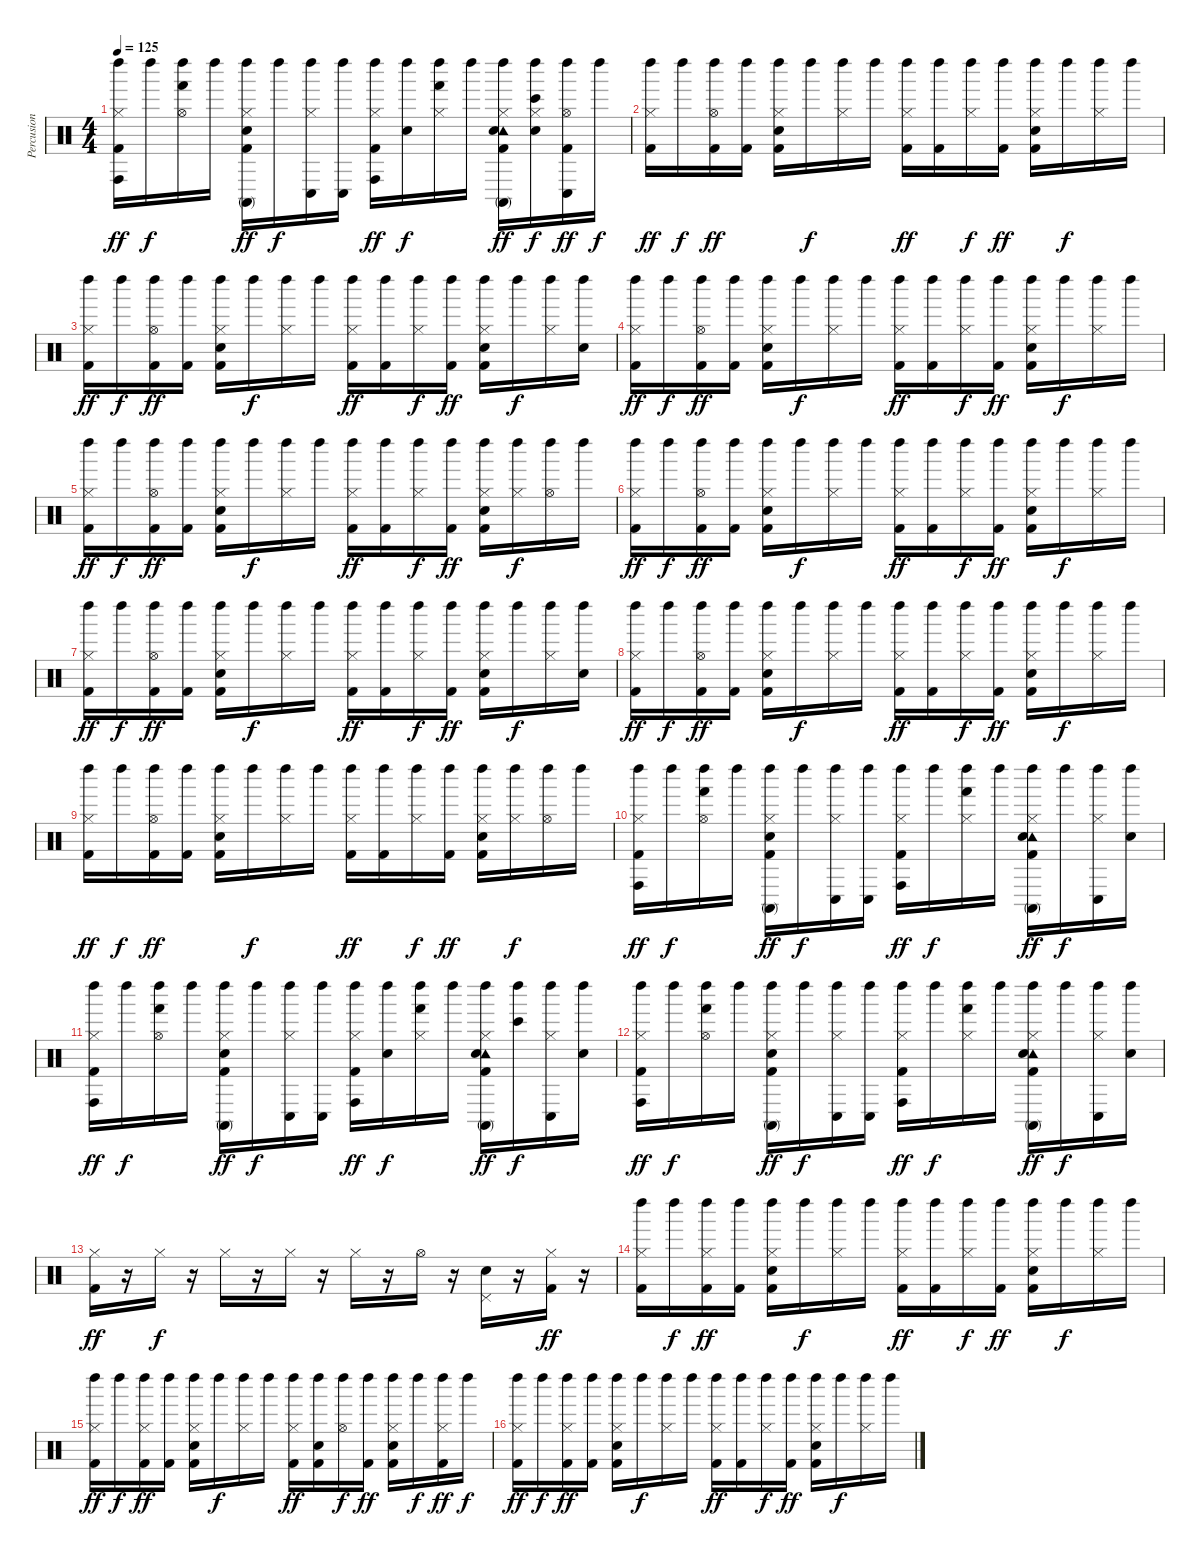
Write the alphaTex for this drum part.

\track ("Percusion" "Percusion") {instrument percussion}
\staff {score}
\articulation defaults
\ts (4 4)
\tempo 125
\clef neutral
\ks c
("Kick (hit) 2" "Left Maraca (hit)" "Hi-Hat (closed)" "Conga high (hit)").16{dy ff} "Left Maraca (hit)".16{dy f} ("Left Maraca (hit)" "Hi-Hat (open)" "Hand (hit)").16 "Left Maraca (hit)".16 ("Left Maraca (hit)" "Hi-Hat (closed)" "Conga high (mute)" "Kick (hit) 2" "Electric Snare (hit)").16{dy ff} "Left Maraca (hit)".16{dy f} ("Left Maraca (hit)" "Hi-Hat (closed)" "Conga low (hit)").16 ("Conga low (hit)" "Left Maraca (hit)").16 ("Left Maraca (hit)" "Hi-Hat (closed)" "Conga high (hit)" "Kick (hit) 2").16{dy ff} ("Electric Snare (hit)" "Left Maraca (hit)").16{dy f} ("Left Maraca (hit)" "Hi-Hat (closed)" "Hand (hit)").16 "Left Maraca (hit)".16 ("Left Maraca (hit)" "Hi-Hat (closed)" "Conga high (mute)" "Tambourine (hit)" "Electric Snare (hit)" "Kick (hit) 2").16{dy ff} ("Electric Snare (hit)" "Bongo High (hit)" "Left Maraca (hit)" "Hi-Hat (closed)").16{dy f} ("Left Maraca (hit)" "Hi-Hat (open)" "Conga low (hit)" "Kick (hit) 2").16{dy ff} "Left Maraca (hit)".16{dy f} |
("Left Maraca (hit)" "Hi-Hat (closed)" "Kick (hit) 2").16{dy ff} "Left Maraca (hit)".16{dy f} ("Left Maraca (hit)" "Hi-Hat (open)" "Kick (hit) 2").16{dy ff} ("Kick (hit) 2" "Left Maraca (hit)").16 ("Left Maraca (hit)" "Hi-Hat (closed)" "Kick (hit) 2" "Electric Snare (hit)").16 "Left Maraca (hit)".16{dy f} ("Left Maraca (hit)" "Hi-Hat (closed)").16 "Left Maraca (hit)".16 ("Left Maraca (hit)" "Hi-Hat (closed)" "Kick (hit) 2").16{dy ff} ("Kick (hit) 2" "Left Maraca (hit)").16 ("Left Maraca (hit)" "Hi-Hat (closed)").16{dy f} ("Left Maraca (hit)" "Kick (hit) 2").16{dy ff} ("Kick (hit) 2" "Electric Snare (hit)" "Left Maraca (hit)" "Hi-Hat (closed)").16 "Left Maraca (hit)".16{dy f} ("Left Maraca (hit)" "Hi-Hat (closed)").16 "Left Maraca (hit)".16 |
("Left Maraca (hit)" "Hi-Hat (closed)" "Kick (hit) 2").16{dy ff} "Left Maraca (hit)".16{dy f} ("Left Maraca (hit)" "Hi-Hat (open)" "Kick (hit) 2").16{dy ff} ("Kick (hit) 2" "Left Maraca (hit)").16 ("Left Maraca (hit)" "Hi-Hat (closed)" "Kick (hit) 2" "Electric Snare (hit)").16 "Left Maraca (hit)".16{dy f} ("Left Maraca (hit)" "Hi-Hat (closed)").16 "Left Maraca (hit)".16 ("Left Maraca (hit)" "Hi-Hat (closed)" "Kick (hit) 2").16{dy ff} ("Kick (hit) 2" "Left Maraca (hit)").16 ("Left Maraca (hit)" "Hi-Hat (closed)").16{dy f} ("Left Maraca (hit)" "Kick (hit) 2").16{dy ff} ("Kick (hit) 2" "Electric Snare (hit)" "Left Maraca (hit)" "Hi-Hat (closed)").16 "Left Maraca (hit)".16{dy f} ("Left Maraca (hit)" "Hi-Hat (closed)").16 ("Left Maraca (hit)" "Electric Snare (hit)").16 |
("Kick (hit) 2" "Left Maraca (hit)" "Hi-Hat (closed)").16{dy ff} "Left Maraca (hit)".16{dy f} ("Left Maraca (hit)" "Hi-Hat (open)" "Kick (hit) 2").16{dy ff} ("Kick (hit) 2" "Left Maraca (hit)").16 ("Left Maraca (hit)" "Hi-Hat (closed)" "Kick (hit) 2" "Electric Snare (hit)").16 "Left Maraca (hit)".16{dy f} ("Left Maraca (hit)" "Hi-Hat (closed)").16 "Left Maraca (hit)".16 ("Left Maraca (hit)" "Hi-Hat (closed)" "Kick (hit) 2").16{dy ff} ("Kick (hit) 2" "Left Maraca (hit)").16 ("Left Maraca (hit)" "Hi-Hat (closed)").16{dy f} ("Left Maraca (hit)" "Kick (hit) 2").16{dy ff} ("Kick (hit) 2" "Electric Snare (hit)" "Left Maraca (hit)" "Hi-Hat (closed)").16 "Left Maraca (hit)".16{dy f} ("Left Maraca (hit)" "Hi-Hat (closed)").16 "Left Maraca (hit)".16 |
("Left Maraca (hit)" "Hi-Hat (closed)" "Kick (hit) 2").16{dy ff} "Left Maraca (hit)".16{dy f} ("Left Maraca (hit)" "Hi-Hat (open)" "Kick (hit) 2").16{dy ff} ("Kick (hit) 2" "Left Maraca (hit)").16 ("Left Maraca (hit)" "Hi-Hat (closed)" "Kick (hit) 2" "Electric Snare (hit)").16 "Left Maraca (hit)".16{dy f} ("Left Maraca (hit)" "Hi-Hat (closed)").16 "Left Maraca (hit)".16 ("Left Maraca (hit)" "Hi-Hat (closed)" "Kick (hit) 2").16{dy ff} ("Kick (hit) 2" "Left Maraca (hit)").16 ("Left Maraca (hit)" "Hi-Hat (closed)").16{dy f} ("Left Maraca (hit)" "Kick (hit) 2").16{dy ff} ("Kick (hit) 2" "Electric Snare (hit)" "Left Maraca (hit)" "Hi-Hat (closed)").16 ("Left Maraca (hit)" "Hi-Hat (closed)").16{dy f} ("Left Maraca (hit)" "Hi-Hat (open)").16 "Left Maraca (hit)".16 |
("Left Maraca (hit)" "Hi-Hat (closed)" "Kick (hit) 2").16{dy ff} "Left Maraca (hit)".16{dy f} ("Left Maraca (hit)" "Hi-Hat (open)" "Kick (hit) 2").16{dy ff} ("Kick (hit) 2" "Left Maraca (hit)").16 ("Left Maraca (hit)" "Hi-Hat (closed)" "Kick (hit) 2" "Electric Snare (hit)").16 "Left Maraca (hit)".16{dy f} ("Left Maraca (hit)" "Hi-Hat (closed)").16 "Left Maraca (hit)".16 ("Left Maraca (hit)" "Hi-Hat (closed)" "Kick (hit) 2").16{dy ff} ("Kick (hit) 2" "Left Maraca (hit)").16 ("Left Maraca (hit)" "Hi-Hat (closed)").16{dy f} ("Left Maraca (hit)" "Kick (hit) 2").16{dy ff} ("Kick (hit) 2" "Electric Snare (hit)" "Left Maraca (hit)" "Hi-Hat (closed)").16 "Left Maraca (hit)".16{dy f} ("Left Maraca (hit)" "Hi-Hat (closed)").16 "Left Maraca (hit)".16 |
("Left Maraca (hit)" "Hi-Hat (closed)" "Kick (hit) 2").16{dy ff} "Left Maraca (hit)".16{dy f} ("Left Maraca (hit)" "Hi-Hat (open)" "Kick (hit) 2").16{dy ff} ("Kick (hit) 2" "Left Maraca (hit)").16 ("Left Maraca (hit)" "Hi-Hat (closed)" "Kick (hit) 2" "Electric Snare (hit)").16 "Left Maraca (hit)".16{dy f} ("Left Maraca (hit)" "Hi-Hat (closed)").16 "Left Maraca (hit)".16 ("Left Maraca (hit)" "Hi-Hat (closed)" "Kick (hit) 2").16{dy ff} ("Kick (hit) 2" "Left Maraca (hit)").16 ("Left Maraca (hit)" "Hi-Hat (closed)").16{dy f} ("Left Maraca (hit)" "Kick (hit) 2").16{dy ff} ("Kick (hit) 2" "Electric Snare (hit)" "Left Maraca (hit)" "Hi-Hat (closed)").16 "Left Maraca (hit)".16{dy f} ("Left Maraca (hit)" "Hi-Hat (closed)").16 ("Left Maraca (hit)" "Electric Snare (hit)").16 |
("Kick (hit) 2" "Left Maraca (hit)" "Hi-Hat (closed)").16{dy ff} "Left Maraca (hit)".16{dy f} ("Left Maraca (hit)" "Hi-Hat (open)" "Kick (hit) 2").16{dy ff} ("Kick (hit) 2" "Left Maraca (hit)").16 ("Left Maraca (hit)" "Hi-Hat (closed)" "Kick (hit) 2" "Electric Snare (hit)").16 "Left Maraca (hit)".16{dy f} ("Left Maraca (hit)" "Hi-Hat (closed)").16 "Left Maraca (hit)".16 ("Left Maraca (hit)" "Hi-Hat (closed)" "Kick (hit) 2").16{dy ff} ("Kick (hit) 2" "Left Maraca (hit)").16 ("Left Maraca (hit)" "Hi-Hat (closed)").16{dy f} ("Left Maraca (hit)" "Kick (hit) 2").16{dy ff} ("Kick (hit) 2" "Electric Snare (hit)" "Left Maraca (hit)" "Hi-Hat (closed)").16 "Left Maraca (hit)".16{dy f} ("Left Maraca (hit)" "Hi-Hat (closed)").16 "Left Maraca (hit)".16 |
("Left Maraca (hit)" "Hi-Hat (closed)" "Kick (hit) 2").16{dy ff} "Left Maraca (hit)".16{dy f} ("Left Maraca (hit)" "Hi-Hat (open)" "Kick (hit) 2").16{dy ff} ("Kick (hit) 2" "Left Maraca (hit)").16 ("Left Maraca (hit)" "Hi-Hat (closed)" "Kick (hit) 2" "Electric Snare (hit)").16 "Left Maraca (hit)".16{dy f} ("Left Maraca (hit)" "Hi-Hat (closed)").16 "Left Maraca (hit)".16 ("Left Maraca (hit)" "Hi-Hat (closed)" "Kick (hit) 2").16{dy ff} ("Kick (hit) 2" "Left Maraca (hit)").16 ("Left Maraca (hit)" "Hi-Hat (closed)").16{dy f} ("Left Maraca (hit)" "Kick (hit) 2").16{dy ff} ("Kick (hit) 2" "Electric Snare (hit)" "Left Maraca (hit)" "Hi-Hat (closed)").16 ("Left Maraca (hit)" "Hi-Hat (closed)").16{dy f} ("Left Maraca (hit)" "Hi-Hat (open)").16 "Left Maraca (hit)".16 |
("Left Maraca (hit)" "Hi-Hat (closed)" "Conga high (hit)" "Kick (hit) 2").16{dy ff} "Left Maraca (hit)".16{dy f} ("Left Maraca (hit)" "Hi-Hat (open)" "Hand (hit)").16 "Left Maraca (hit)".16 ("Left Maraca (hit)" "Hi-Hat (closed)" "Conga high (mute)" "Kick (hit) 2" "Electric Snare (hit)").16{dy ff} "Left Maraca (hit)".16{dy f} ("Left Maraca (hit)" "Hi-Hat (closed)" "Conga low (hit)").16 ("Conga low (hit)" "Left Maraca (hit)").16 ("Left Maraca (hit)" "Hi-Hat (closed)" "Conga high (hit)" "Kick (hit) 2").16{dy ff} "Left Maraca (hit)".16{dy f} ("Left Maraca (hit)" "Hi-Hat (closed)" "Hand (hit)").16 "Left Maraca (hit)".16 ("Left Maraca (hit)" "Hi-Hat (closed)" "Conga high (mute)" "Tambourine (hit)" "Kick (hit) 2" "Electric Snare (hit)").16{dy ff} "Left Maraca (hit)".16{dy f} ("Left Maraca (hit)" "Hi-Hat (closed)" "Conga low (hit)").16 ("Left Maraca (hit)" "Electric Snare (hit)").16 |
("Kick (hit) 2" "Left Maraca (hit)" "Hi-Hat (closed)" "Conga high (hit)").16{dy ff} "Left Maraca (hit)".16{dy f} ("Left Maraca (hit)" "Hi-Hat (open)" "Hand (hit)").16 "Left Maraca (hit)".16 ("Left Maraca (hit)" "Hi-Hat (closed)" "Conga high (mute)" "Kick (hit) 2" "Electric Snare (hit)").16{dy ff} "Left Maraca (hit)".16{dy f} ("Left Maraca (hit)" "Hi-Hat (closed)" "Conga low (hit)").16 ("Conga low (hit)" "Left Maraca (hit)").16 ("Left Maraca (hit)" "Hi-Hat (closed)" "Conga high (hit)" "Kick (hit) 2").16{dy ff} ("Electric Snare (hit)" "Left Maraca (hit)").16{dy f} ("Left Maraca (hit)" "Hi-Hat (closed)" "Hand (hit)").16 "Left Maraca (hit)".16 ("Left Maraca (hit)" "Hi-Hat (closed)" "Conga high (mute)" "Tambourine (hit)" "Electric Snare (hit)" "Kick (hit) 2").16{dy ff} ("Bongo High (hit)" "Left Maraca (hit)").16{dy f} ("Left Maraca (hit)" "Hi-Hat (closed)" "Conga low (hit)").16 ("Left Maraca (hit)" "Electric Snare (hit)").16 |
("Kick (hit) 2" "Left Maraca (hit)" "Hi-Hat (closed)" "Conga high (hit)").16{dy ff} "Left Maraca (hit)".16{dy f} ("Left Maraca (hit)" "Hi-Hat (open)" "Hand (hit)").16 "Left Maraca (hit)".16 ("Left Maraca (hit)" "Hi-Hat (closed)" "Conga high (mute)" "Kick (hit) 2" "Electric Snare (hit)").16{dy ff} "Left Maraca (hit)".16{dy f} ("Left Maraca (hit)" "Hi-Hat (closed)" "Conga low (hit)").16 ("Conga low (hit)" "Left Maraca (hit)").16 ("Left Maraca (hit)" "Hi-Hat (closed)" "Conga high (hit)" "Kick (hit) 2").16{dy ff} "Left Maraca (hit)".16{dy f} ("Left Maraca (hit)" "Hi-Hat (closed)" "Hand (hit)").16 "Left Maraca (hit)".16 ("Left Maraca (hit)" "Hi-Hat (closed)" "Conga high (mute)" "Tambourine (hit)" "Kick (hit) 2" "Electric Snare (hit)").16{dy ff} "Left Maraca (hit)".16{dy f} ("Left Maraca (hit)" "Hi-Hat (closed)" "Conga low (hit)").16 ("Left Maraca (hit)" "Electric Snare (hit)").16 |
("Hi-Hat (closed)" "Kick (hit) 2").16{dy ff} r.16 "Hi-Hat (closed)".16{dy f} r.16 "Hi-Hat (closed)".16 r.16 "Hi-Hat (closed)".16 r.16 "Hi-Hat (closed)".16 r.16 "Hi-Hat (open)".16 r.16 ("Pedal Hi-Hat (hit)" "Electric Snare (hit)").16 r.16 ("Kick (hit) 2" "Hi-Hat (closed)").16{dy ff} r.16 |
("Hi-Hat (closed)" "Left Maraca (hit)" "Kick (hit) 2").16 "Left Maraca (hit)".16{dy f} ("Left Maraca (hit)" "Hi-Hat (closed)" "Kick (hit) 2").16{dy ff} ("Kick (hit) 2" "Left Maraca (hit)").16 ("Left Maraca (hit)" "Hi-Hat (closed)" "Kick (hit) 2" "Electric Snare (hit)").16 "Left Maraca (hit)".16{dy f} ("Left Maraca (hit)" "Hi-Hat (closed)").16 "Left Maraca (hit)".16 ("Left Maraca (hit)" "Hi-Hat (closed)" "Kick (hit) 2").16{dy ff} ("Kick (hit) 2" "Left Maraca (hit)").16 ("Left Maraca (hit)" "Hi-Hat (closed)").16{dy f} ("Left Maraca (hit)" "Kick (hit) 2").16{dy ff} ("Kick (hit) 2" "Electric Snare (hit)" "Left Maraca (hit)" "Hi-Hat (closed)").16 "Left Maraca (hit)".16{dy f} ("Left Maraca (hit)" "Hi-Hat (closed)").16 "Left Maraca (hit)".16 |
("Left Maraca (hit)" "Hi-Hat (closed)" "Kick (hit) 2").16{dy ff} "Left Maraca (hit)".16{dy f} ("Left Maraca (hit)" "Hi-Hat (closed)" "Kick (hit) 2").16{dy ff} ("Kick (hit) 2" "Left Maraca (hit)").16 ("Left Maraca (hit)" "Hi-Hat (closed)" "Kick (hit) 2" "Electric Snare (hit)").16 "Left Maraca (hit)".16{dy f} ("Left Maraca (hit)" "Hi-Hat (closed)").16 "Left Maraca (hit)".16 ("Left Maraca (hit)" "Hi-Hat (closed)" "Kick (hit) 2").16{dy ff} ("Kick (hit) 2" "Electric Snare (hit)" "Left Maraca (hit)").16 ("Left Maraca (hit)" "Hi-Hat (open)").16{dy f} ("Left Maraca (hit)" "Kick (hit) 2").16{dy ff} ("Kick (hit) 2" "Electric Snare (hit)" "Left Maraca (hit)" "Hi-Hat (closed)").16 "Left Maraca (hit)".16{dy f} ("Left Maraca (hit)" "Hi-Hat (closed)" "Kick (hit) 2").16{dy ff} "Left Maraca (hit)".16{dy f} |
("Hi-Hat (closed)" "Left Maraca (hit)" "Kick (hit) 2").16{dy ff} "Left Maraca (hit)".16{dy f} ("Left Maraca (hit)" "Hi-Hat (closed)" "Kick (hit) 2").16{dy ff} ("Kick (hit) 2" "Left Maraca (hit)").16 ("Left Maraca (hit)" "Hi-Hat (closed)" "Kick (hit) 2" "Electric Snare (hit)").16 "Left Maraca (hit)".16{dy f} ("Left Maraca (hit)" "Hi-Hat (closed)").16 "Left Maraca (hit)".16 ("Left Maraca (hit)" "Hi-Hat (closed)" "Kick (hit) 2").16{dy ff} ("Kick (hit) 2" "Left Maraca (hit)").16 ("Left Maraca (hit)" "Hi-Hat (closed)").16{dy f} ("Left Maraca (hit)" "Kick (hit) 2").16{dy ff} ("Kick (hit) 2" "Electric Snare (hit)" "Left Maraca (hit)" "Hi-Hat (closed)").16 "Left Maraca (hit)".16{dy f} ("Left Maraca (hit)" "Hi-Hat (closed)").16 "Left Maraca (hit)".16
